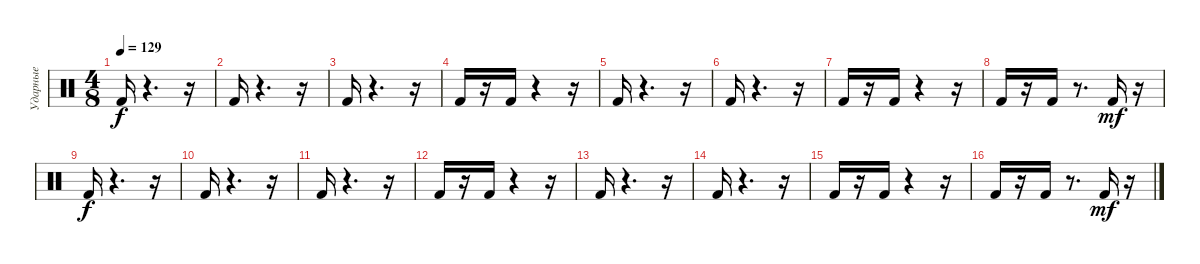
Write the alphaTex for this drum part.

\track ("Ударные" "Ударные") {instrument percussion}
\staff {score}
\articulation defaults
\ts (4 8)
\tempo 129
\clef neutral
\ks c "Kick (hit) 2".16{dy f}
r.4{d} r.16 |
"Kick (hit) 2".16 r.4{d} r.16 |
"Kick (hit) 2".16 r.4{d} r.16 |
"Kick (hit) 2".16 r.16 "Kick (hit) 2".16 r.4 r.16 |
"Kick (hit) 2".16 r.4{d} r.16 |
"Kick (hit) 2".16 r.4{d} r.16 |
"Kick (hit) 2".16 r.16 "Kick (hit) 2".16 r.4 r.16 |
"Kick (hit) 2".16 r.16 "Kick (hit) 2".16 r.8{d} "Kick (hit) 2".16{dy mf} r.16 |
"Kick (hit) 2".16{dy f} r.4{d} r.16 |
"Kick (hit) 2".16 r.4{d} r.16 |
"Kick (hit) 2".16 r.4{d} r.16 |
"Kick (hit) 2".16 r.16 "Kick (hit) 2".16 r.4 r.16 |
"Kick (hit) 2".16 r.4{d} r.16 |
"Kick (hit) 2".16 r.4{d} r.16 |
"Kick (hit) 2".16 r.16 "Kick (hit) 2".16 r.4 r.16 |
"Kick (hit) 2".16 r.16 "Kick (hit) 2".16 r.8{d} "Kick (hit) 2".16{dy mf} r.16
